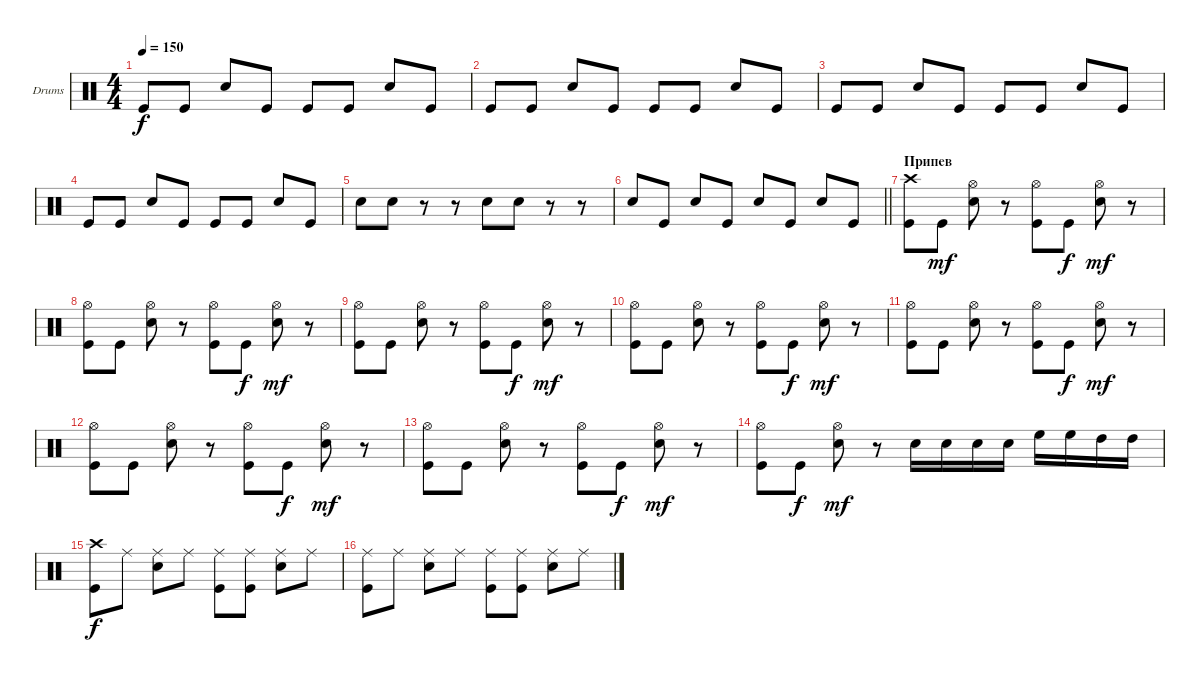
\bracketExtendMode groupsimilarinstruments
\firstSystemTrackNameOrientation horizontal
\otherSystemsTrackNameOrientation horizontal
\track ("Drumkit" "Drums") {instrument percussion}
\staff {score}
\articulation defaults
\ts (4 4)
\tempo 150
\clef neutral
\ks c "Kick (hit)".8{dy f} "Kick (hit)".8 "Snare (hit) 2".8 "Kick (hit)".8 "Kick (hit)".8 "Kick (hit)".8 "Snare (hit) 2".8 "Kick (hit)".8
|
"Kick (hit)".8 "Kick (hit)".8 "Snare (hit) 2".8 "Kick (hit)".8 "Kick (hit)".8 "Kick (hit)".8 "Snare (hit) 2".8 "Kick (hit)".8 |
"Kick (hit)".8 "Kick (hit)".8 "Snare (hit) 2".8 "Kick (hit)".8 "Kick (hit)".8 "Kick (hit)".8 "Snare (hit) 2".8 "Kick (hit)".8 |
"Kick (hit)".8 "Kick (hit)".8 "Snare (hit) 2".8 "Kick (hit)".8 "Kick (hit)".8 "Kick (hit)".8 "Snare (hit) 2".8 "Kick (hit)".8 |
"Snare (hit) 2".8 "Snare (hit) 2".8 r.8 r.8 "Snare (hit) 2".8 "Snare (hit) 2".8 r.8 r.8 |
\barLineRight lightlight "Snare (hit) 2".8 "Kick (hit)".8 "Snare (hit) 2".8 "Kick (hit)".8 "Snare (hit) 2".8 "Kick (hit)".8 "Snare (hit) 2".8 "Kick (hit)".8
|
\section ("" "Припев")
("Crash high (hit)" "Kick (hit)").8 "Kick (hit)".8{dy mf} ("Hi-Hat (open)" "Snare (hit) 2").8 r.8 ("Hi-Hat (open)" "Kick (hit)").8 "Kick (hit)".8{dy f} ("Hi-Hat (open)" "Snare (hit) 2").8{dy mf} r.8 |
("Hi-Hat (open)" "Kick (hit)").8 "Kick (hit)".8 ("Hi-Hat (open)" "Snare (hit) 2").8 r.8 ("Hi-Hat (open)" "Kick (hit)").8 "Kick (hit)".8{dy f} ("Hi-Hat (open)" "Snare (hit) 2").8{dy mf} r.8 |
("Hi-Hat (open)" "Kick (hit)").8 "Kick (hit)".8 ("Hi-Hat (open)" "Snare (hit) 2").8 r.8 ("Hi-Hat (open)" "Kick (hit)").8 "Kick (hit)".8{dy f} ("Hi-Hat (open)" "Snare (hit) 2").8{dy mf} r.8 |
("Hi-Hat (open)" "Kick (hit)").8 "Kick (hit)".8 ("Hi-Hat (open)" "Snare (hit) 2").8 r.8 ("Hi-Hat (open)" "Kick (hit)").8 "Kick (hit)".8{dy f} ("Hi-Hat (open)" "Snare (hit) 2").8{dy mf} r.8 |
("Hi-Hat (open)" "Kick (hit)").8 "Kick (hit)".8 ("Hi-Hat (open)" "Snare (hit) 2").8 r.8 ("Hi-Hat (open)" "Kick (hit)").8 "Kick (hit)".8{dy f} ("Hi-Hat (open)" "Snare (hit) 2").8{dy mf} r.8 |
("Hi-Hat (open)" "Kick (hit)").8 "Kick (hit)".8 ("Hi-Hat (open)" "Snare (hit) 2").8 r.8 ("Hi-Hat (open)" "Kick (hit)").8 "Kick (hit)".8{dy f} ("Hi-Hat (open)" "Snare (hit) 2").8{dy mf} r.8 |
("Hi-Hat (open)" "Kick (hit)").8 "Kick (hit)".8 ("Hi-Hat (open)" "Snare (hit) 2").8 r.8 ("Hi-Hat (open)" "Kick (hit)").8 "Kick (hit)".8{dy f} ("Hi-Hat (open)" "Snare (hit) 2").8{dy mf} r.8 |
("Hi-Hat (open)" "Kick (hit)").8 "Kick (hit)".8{dy f} ("Hi-Hat (open)" "Snare (hit) 2").8{dy mf} r.8 "Snare (hit) 2".16 "Snare (hit) 2".16 "Snare (hit) 2".16 "Snare (hit) 2".16 "High Floor Tom (hit)".16 "High Floor Tom (hit)".16 "High Tom (hit)".16 "High Tom (hit)".16 |
("Crash high (hit)" "Kick (hit)").8{dy f} "Ride (middle)".8 ("Ride (middle)" "Snare (hit) 2").8 "Ride (middle)".8 ("Ride (middle)" "Kick (hit)").8 ("Ride (middle)" "Kick (hit)").8 ("Ride (middle)" "Snare (hit) 2").8 "Ride (middle)".8 |
("Ride (middle)" "Kick (hit)").8 "Ride (middle)".8 ("Ride (middle)" "Snare (hit) 2").8 "Ride (middle)".8 ("Ride (middle)" "Kick (hit)").8 ("Ride (middle)" "Kick (hit)").8 ("Ride (middle)" "Snare (hit) 2").8 "Ride (middle)".8
